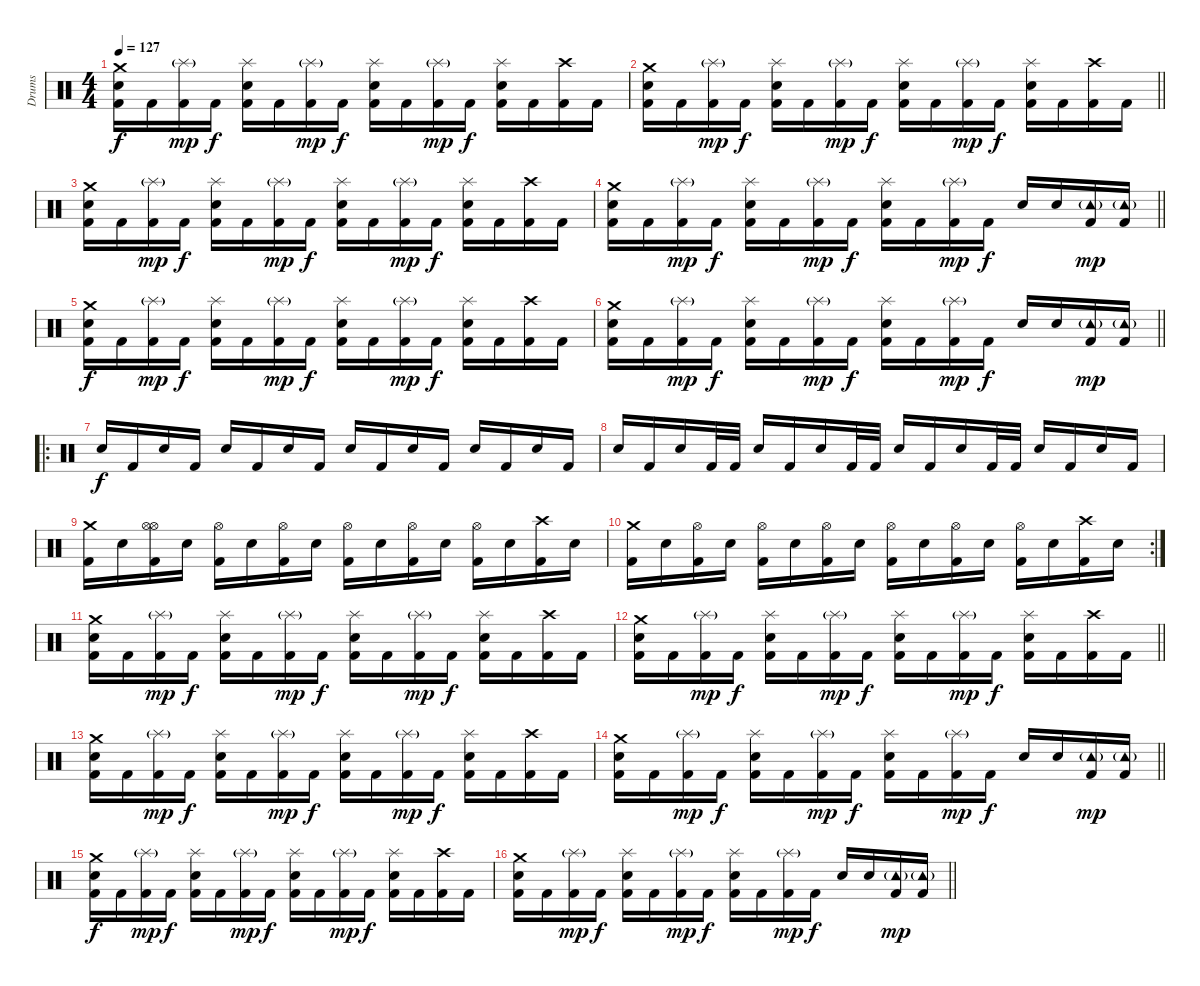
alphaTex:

\track ("Drums" "Drums") {instrument percussion}
\staff {score}
\articulation defaults
\ts (4 4)
\tempo 127
\clef neutral
\ks c
("Crash medium (hit)" "Electric Snare (hit)" "Kick (hit) 2").16{dy f} "Kick (hit) 2".16 ("Splash (hit)"{g} "Kick (hit) 2").16{dy mp} "Kick (hit) 2".16{dy f} ("Splash (hit)" "Electric Snare (hit)" "Kick (hit) 2").16 "Kick (hit) 2".16 ("Splash (hit)"{g} "Kick (hit) 2").16{dy mp} "Kick (hit) 2".16{dy f} ("Splash (hit)" "Electric Snare (hit)" "Kick (hit) 2").16 "Kick (hit) 2".16 ("Splash (hit)"{g} "Kick (hit) 2").16{dy mp} "Kick (hit) 2".16{dy f} ("Splash (hit)" "Electric Snare (hit)" "Kick (hit) 2").16 "Kick (hit) 2".16 ("Crash high (hit)" "Kick (hit) 2").16 "Kick (hit) 2".16 |
\barLineRight lightlight
("Crash medium (hit)" "Electric Snare (hit)" "Kick (hit) 2").16 "Kick (hit) 2".16 ("Splash (hit)"{g} "Kick (hit) 2").16{dy mp} "Kick (hit) 2".16{dy f} ("Splash (hit)" "Electric Snare (hit)" "Kick (hit) 2").16 "Kick (hit) 2".16 ("Splash (hit)"{g} "Kick (hit) 2").16{dy mp} "Kick (hit) 2".16{dy f} ("Splash (hit)" "Electric Snare (hit)" "Kick (hit) 2").16 "Kick (hit) 2".16 ("Splash (hit)"{g} "Kick (hit) 2").16{dy mp} "Kick (hit) 2".16{dy f} ("Splash (hit)" "Electric Snare (hit)" "Kick (hit) 2").16 "Kick (hit) 2".16 ("Crash high (hit)" "Kick (hit) 2").16 "Kick (hit) 2".16 |
("Crash medium (hit)" "Electric Snare (hit)" "Kick (hit) 2").16 "Kick (hit) 2".16 ("Splash (hit)"{g} "Kick (hit) 2").16{dy mp} "Kick (hit) 2".16{dy f} ("Splash (hit)" "Electric Snare (hit)" "Kick (hit) 2").16 "Kick (hit) 2".16 ("Splash (hit)"{g} "Kick (hit) 2").16{dy mp} "Kick (hit) 2".16{dy f} ("Splash (hit)" "Electric Snare (hit)" "Kick (hit) 2").16 "Kick (hit) 2".16 ("Splash (hit)"{g} "Kick (hit) 2").16{dy mp} "Kick (hit) 2".16{dy f} ("Splash (hit)" "Electric Snare (hit)" "Kick (hit) 2").16 "Kick (hit) 2".16 ("Crash high (hit)" "Kick (hit) 2").16 "Kick (hit) 2".16 |
\barLineRight lightlight
("Crash medium (hit)" "Electric Snare (hit)" "Kick (hit) 2").16 "Kick (hit) 2".16 ("Splash (hit)"{g} "Kick (hit) 2").16{dy mp} "Kick (hit) 2".16{dy f} ("Splash (hit)" "Electric Snare (hit)" "Kick (hit) 2").16 "Kick (hit) 2".16 ("Splash (hit)"{g} "Kick (hit) 2").16{dy mp} "Kick (hit) 2".16{dy f} ("Splash (hit)" "Electric Snare (hit)" "Kick (hit) 2").16 "Kick (hit) 2".16 ("Splash (hit)"{g} "Kick (hit) 2").16{dy mp} "Kick (hit) 2".16{dy f} "Electric Snare (hit)".16 "Electric Snare (hit)".16 ("Tambourine (hit)"{g} "Kick (hit) 2").16{dy mp} ("Tambourine (hit)"{g} "Kick (hit) 2").16 |
("Crash medium (hit)" "Electric Snare (hit)" "Kick (hit) 2").16{dy f} "Kick (hit) 2".16 ("Splash (hit)"{g} "Kick (hit) 2").16{dy mp} "Kick (hit) 2".16{dy f} ("Splash (hit)" "Electric Snare (hit)" "Kick (hit) 2").16 "Kick (hit) 2".16 ("Splash (hit)"{g} "Kick (hit) 2").16{dy mp} "Kick (hit) 2".16{dy f} ("Splash (hit)" "Electric Snare (hit)" "Kick (hit) 2").16 "Kick (hit) 2".16 ("Splash (hit)"{g} "Kick (hit) 2").16{dy mp} "Kick (hit) 2".16{dy f} ("Splash (hit)" "Electric Snare (hit)" "Kick (hit) 2").16 "Kick (hit) 2".16 ("Crash high (hit)" "Kick (hit) 2").16 "Kick (hit) 2".16 |
\barLineRight lightlight
("Crash medium (hit)" "Electric Snare (hit)" "Kick (hit) 2").16 "Kick (hit) 2".16 ("Splash (hit)"{g} "Kick (hit) 2").16{dy mp} "Kick (hit) 2".16{dy f} ("Splash (hit)" "Electric Snare (hit)" "Kick (hit) 2").16 "Kick (hit) 2".16 ("Splash (hit)"{g} "Kick (hit) 2").16{dy mp} "Kick (hit) 2".16{dy f} ("Splash (hit)" "Electric Snare (hit)" "Kick (hit) 2").16 "Kick (hit) 2".16 ("Splash (hit)"{g} "Kick (hit) 2").16{dy mp} "Kick (hit) 2".16{dy f} "Electric Snare (hit)".16 "Electric Snare (hit)".16 ("Tambourine (hit)"{g} "Kick (hit) 2").16{dy mp} ("Tambourine (hit)"{g} "Kick (hit) 2").16 |
\ro "Electric Snare (hit)".16{dy f} "Kick (hit) 2".16 "Electric Snare (hit)".16 "Kick (hit) 2".16 "Electric Snare (hit)".16 "Kick (hit) 2".16 "Electric Snare (hit)".16 "Kick (hit) 2".16 "Electric Snare (hit)".16 "Kick (hit) 2".16 "Electric Snare (hit)".16 "Kick (hit) 2".16 "Electric Snare (hit)".16 "Kick (hit) 2".16 "Electric Snare (hit)".16 "Kick (hit) 2".16
|
"Electric Snare (hit)".16 "Kick (hit) 2".16 "Electric Snare (hit)".16 "Kick (hit) 2".32 "Kick (hit) 2".32 "Electric Snare (hit)".16 "Kick (hit) 2".16 "Electric Snare (hit)".16 "Kick (hit) 2".32 "Kick (hit) 2".32 "Electric Snare (hit)".16 "Kick (hit) 2".16 "Electric Snare (hit)".16 "Kick (hit) 2".32 "Kick (hit) 2".32 "Electric Snare (hit)".16 "Kick (hit) 2".16 "Electric Snare (hit)".16 "Kick (hit) 2".16 |
("Crash medium (hit)" "Kick (hit) 2").16 "Electric Snare (hit)".16 ("Hi-Hat (open)" "Hi-Hat (open)" "Kick (hit) 2").16 "Electric Snare (hit)".16 ("Hi-Hat (open)" "Kick (hit) 2").16 "Electric Snare (hit)".16 ("Hi-Hat (open)" "Kick (hit) 2").16 "Electric Snare (hit)".16 ("Hi-Hat (open)" "Kick (hit) 2").16 "Electric Snare (hit)".16 ("Hi-Hat (open)" "Kick (hit) 2").16 "Electric Snare (hit)".16 ("Hi-Hat (open)" "Kick (hit) 2").16 "Electric Snare (hit)".16 ("Crash high (hit)" "Kick (hit) 2").16 "Electric Snare (hit)".16 |
\rc 2
("Crash medium (hit)" "Kick (hit) 2").16 "Electric Snare (hit)".16 ("Hi-Hat (open)" "Kick (hit) 2").16 "Electric Snare (hit)".16 ("Hi-Hat (open)" "Kick (hit) 2").16 "Electric Snare (hit)".16 ("Hi-Hat (open)" "Kick (hit) 2").16 "Electric Snare (hit)".16 ("Hi-Hat (open)" "Kick (hit) 2").16 "Electric Snare (hit)".16 ("Hi-Hat (open)" "Kick (hit) 2").16 "Electric Snare (hit)".16 ("Hi-Hat (open)" "Kick (hit) 2").16 "Electric Snare (hit)".16 ("Crash high (hit)" "Kick (hit) 2").16 "Electric Snare (hit)".16 |
("Crash medium (hit)" "Electric Snare (hit)" "Kick (hit) 2").16 "Kick (hit) 2".16 ("Splash (hit)"{g} "Kick (hit) 2").16{dy mp} "Kick (hit) 2".16{dy f} ("Splash (hit)" "Electric Snare (hit)" "Kick (hit) 2").16 "Kick (hit) 2".16 ("Splash (hit)"{g} "Kick (hit) 2").16{dy mp} "Kick (hit) 2".16{dy f} ("Splash (hit)" "Electric Snare (hit)" "Kick (hit) 2").16 "Kick (hit) 2".16 ("Splash (hit)"{g} "Kick (hit) 2").16{dy mp} "Kick (hit) 2".16{dy f} ("Splash (hit)" "Electric Snare (hit)" "Kick (hit) 2").16 "Kick (hit) 2".16 ("Crash high (hit)" "Kick (hit) 2").16 "Kick (hit) 2".16 |
\barLineRight lightlight
("Crash medium (hit)" "Electric Snare (hit)" "Kick (hit) 2").16 "Kick (hit) 2".16 ("Splash (hit)"{g} "Kick (hit) 2").16{dy mp} "Kick (hit) 2".16{dy f} ("Splash (hit)" "Electric Snare (hit)" "Kick (hit) 2").16 "Kick (hit) 2".16 ("Splash (hit)"{g} "Kick (hit) 2").16{dy mp} "Kick (hit) 2".16{dy f} ("Splash (hit)" "Electric Snare (hit)" "Kick (hit) 2").16 "Kick (hit) 2".16 ("Splash (hit)"{g} "Kick (hit) 2").16{dy mp} "Kick (hit) 2".16{dy f} ("Splash (hit)" "Electric Snare (hit)" "Kick (hit) 2").16 "Kick (hit) 2".16 ("Crash high (hit)" "Kick (hit) 2").16 "Kick (hit) 2".16 |
("Crash medium (hit)" "Electric Snare (hit)" "Kick (hit) 2").16 "Kick (hit) 2".16 ("Splash (hit)"{g} "Kick (hit) 2").16{dy mp} "Kick (hit) 2".16{dy f} ("Splash (hit)" "Electric Snare (hit)" "Kick (hit) 2").16 "Kick (hit) 2".16 ("Splash (hit)"{g} "Kick (hit) 2").16{dy mp} "Kick (hit) 2".16{dy f} ("Splash (hit)" "Electric Snare (hit)" "Kick (hit) 2").16 "Kick (hit) 2".16 ("Splash (hit)"{g} "Kick (hit) 2").16{dy mp} "Kick (hit) 2".16{dy f} ("Splash (hit)" "Electric Snare (hit)" "Kick (hit) 2").16 "Kick (hit) 2".16 ("Crash high (hit)" "Kick (hit) 2").16 "Kick (hit) 2".16 |
\barLineRight lightlight
("Crash medium (hit)" "Electric Snare (hit)" "Kick (hit) 2").16 "Kick (hit) 2".16 ("Splash (hit)"{g} "Kick (hit) 2").16{dy mp} "Kick (hit) 2".16{dy f} ("Splash (hit)" "Electric Snare (hit)" "Kick (hit) 2").16 "Kick (hit) 2".16 ("Splash (hit)"{g} "Kick (hit) 2").16{dy mp} "Kick (hit) 2".16{dy f} ("Splash (hit)" "Electric Snare (hit)" "Kick (hit) 2").16 "Kick (hit) 2".16 ("Splash (hit)"{g} "Kick (hit) 2").16{dy mp} "Kick (hit) 2".16{dy f} "Electric Snare (hit)".16 "Electric Snare (hit)".16 ("Tambourine (hit)"{g} "Kick (hit) 2").16{dy mp} ("Tambourine (hit)"{g} "Kick (hit) 2").16 |
("Crash medium (hit)" "Electric Snare (hit)" "Kick (hit) 2").16{dy f} "Kick (hit) 2".16 ("Splash (hit)"{g} "Kick (hit) 2").16{dy mp} "Kick (hit) 2".16{dy f} ("Splash (hit)" "Electric Snare (hit)" "Kick (hit) 2").16 "Kick (hit) 2".16 ("Splash (hit)"{g} "Kick (hit) 2").16{dy mp} "Kick (hit) 2".16{dy f} ("Splash (hit)" "Electric Snare (hit)" "Kick (hit) 2").16 "Kick (hit) 2".16 ("Splash (hit)"{g} "Kick (hit) 2").16{dy mp} "Kick (hit) 2".16{dy f} ("Splash (hit)" "Electric Snare (hit)" "Kick (hit) 2").16 "Kick (hit) 2".16 ("Crash high (hit)" "Kick (hit) 2").16 "Kick (hit) 2".16 |
\barLineRight lightlight
("Crash medium (hit)" "Electric Snare (hit)" "Kick (hit) 2").16 "Kick (hit) 2".16 ("Splash (hit)"{g} "Kick (hit) 2").16{dy mp} "Kick (hit) 2".16{dy f} ("Splash (hit)" "Electric Snare (hit)" "Kick (hit) 2").16 "Kick (hit) 2".16 ("Splash (hit)"{g} "Kick (hit) 2").16{dy mp} "Kick (hit) 2".16{dy f} ("Splash (hit)" "Electric Snare (hit)" "Kick (hit) 2").16 "Kick (hit) 2".16 ("Splash (hit)"{g} "Kick (hit) 2").16{dy mp} "Kick (hit) 2".16{dy f} "Electric Snare (hit)".16 "Electric Snare (hit)".16 ("Tambourine (hit)"{g} "Kick (hit) 2").16{dy mp} ("Tambourine (hit)"{g} "Kick (hit) 2").16
